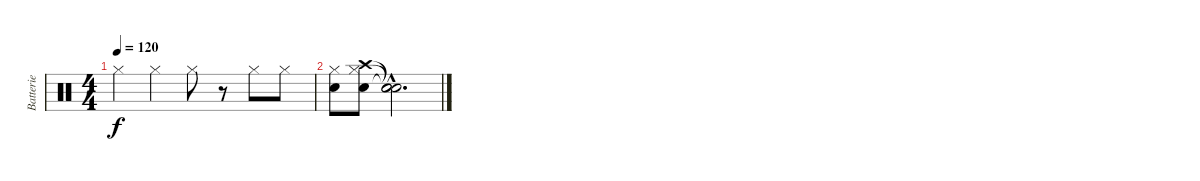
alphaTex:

\track ("Batterie" "Batterie") {instrument percussion}
\staff {score}
\articulation defaults
\ts (4 4)
\tempo 120
\clef neutral
\ks c "Hi-Hat (closed)".4{dy f} "Hi-Hat (closed)".4 "Hi-Hat (closed)".8
r.8 "Hi-Hat (closed)".8 "Hi-Hat (closed)".8 |
("Hi-Hat (closed)" "Electric Snare (hit)").8 ("Hi-Hat (closed)" "Electric Snare (hit)" "Crash high (hit)").8 ("Snare (hit)"{hac t} "Snare (hit)"{hac t} "Snare (hit)"{hac t}).2{d}
